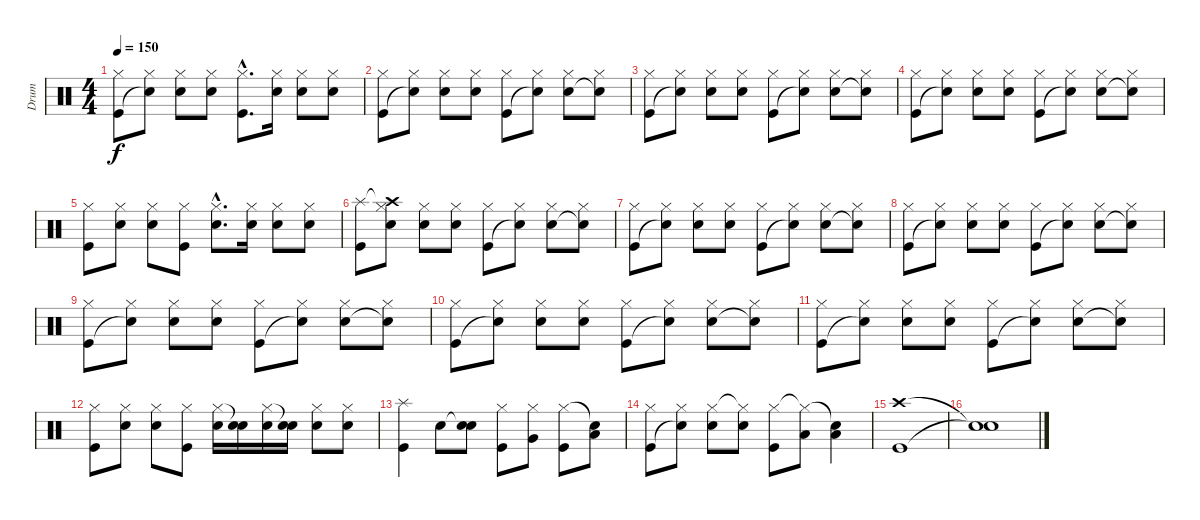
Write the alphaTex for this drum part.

\track ("Drum" "Drum") {instrument percussion}
\staff {score}
\articulation defaults
\ts (4 4)
\tempo 150
\clef neutral
\ks c
("Hi-Hat (closed)" "Kick (hit)").8{dy f} ("Hi-Hat (closed)" "Snare (hit)"{t}).8 ("Hi-Hat (closed)" "Snare (hit) 2").8 ("Hi-Hat (closed)" "Snare (hit) 2").8 ("Hi-Hat (closed)"{hac} "Kick (hit)"{hac}).8{d} ("Hi-Hat (closed)" "Snare (hit) 2").16 ("Hi-Hat (closed)" "Snare (hit) 2").8 ("Hi-Hat (closed)" "Snare (hit) 2").8 |
("Hi-Hat (closed)" "Kick (hit)").8 ("Hi-Hat (closed)" "Snare (hit)"{t}).8 ("Hi-Hat (closed)" "Snare (hit) 2").8 ("Hi-Hat (closed)" "Snare (hit) 2").8 ("Hi-Hat (closed)" "Kick (hit)").8 ("Hi-Hat (closed)" "Snare (hit)"{t}).8 ("Hi-Hat (closed)" "Snare (hit) 2").8 ("Hi-Hat (closed)" "Snare (hit)"{t}).8 |
("Hi-Hat (closed)" "Kick (hit)").8 ("Hi-Hat (closed)" "Snare (hit)"{t}).8 ("Hi-Hat (closed)" "Snare (hit) 2").8 ("Hi-Hat (closed)" "Snare (hit) 2").8 ("Hi-Hat (closed)" "Kick (hit)").8 ("Hi-Hat (closed)" "Snare (hit)"{t}).8 ("Hi-Hat (closed)" "Snare (hit) 2").8 ("Hi-Hat (closed)" "Snare (hit)"{t}).8 |
("Hi-Hat (closed)" "Kick (hit)").8 ("Hi-Hat (closed)" "Snare (hit)"{t}).8 ("Hi-Hat (closed)" "Snare (hit) 2").8 ("Hi-Hat (closed)" "Snare (hit) 2").8 ("Hi-Hat (closed)" "Kick (hit)").8 ("Hi-Hat (closed)" "Snare (hit)"{t}).8 ("Hi-Hat (closed)" "Snare (hit) 2").8 ("Hi-Hat (closed)" "Snare (hit)"{t}).8 |
("Hi-Hat (closed)" "Kick (hit)").8 ("Hi-Hat (closed)" "Snare (hit) 2").8 ("Hi-Hat (closed)" "Snare (hit) 2").8 ("Hi-Hat (closed)" "Kick (hit)").8 ("Hi-Hat (closed)"{hac} "Snare (hit) 2"{hac}).8{d} ("Hi-Hat (closed)" "Snare (hit) 2").16 ("Hi-Hat (closed)" "Snare (hit) 2").8 ("Hi-Hat (closed)" "Snare (hit) 2").8 |
("Splash (hit)" "Kick (hit)").8 ("Crash high (hit)"{t} "Hi-Hat (closed)" "Snare (hit)").8 ("Hi-Hat (closed)" "Snare (hit) 2").8 ("Hi-Hat (closed)" "Snare (hit) 2").8 ("Hi-Hat (closed)" "Kick (hit)").8 ("Hi-Hat (closed)" "Snare (hit)"{t}).8 ("Hi-Hat (closed)" "Snare (hit) 2").8 ("Hi-Hat (closed)" "Snare (hit)"{t}).8 |
("Hi-Hat (closed)" "Kick (hit)").8 ("Hi-Hat (closed)" "Snare (hit)"{t}).8 ("Hi-Hat (closed)" "Snare (hit) 2").8 ("Hi-Hat (closed)" "Snare (hit) 2").8 ("Hi-Hat (closed)" "Kick (hit)").8 ("Hi-Hat (closed)" "Snare (hit)"{t}).8 ("Hi-Hat (closed)" "Snare (hit) 2").8 ("Hi-Hat (closed)" "Snare (hit)"{t}).8 |
("Hi-Hat (closed)" "Kick (hit)").8 ("Hi-Hat (closed)" "Snare (hit)"{t}).8 ("Hi-Hat (closed)" "Snare (hit) 2").8 ("Hi-Hat (closed)" "Snare (hit) 2").8 ("Hi-Hat (closed)" "Kick (hit)").8 ("Hi-Hat (closed)" "Snare (hit)"{t}).8 ("Hi-Hat (closed)" "Snare (hit) 2").8 ("Hi-Hat (closed)" "Snare (hit)"{t}).8 |
("Hi-Hat (closed)" "Kick (hit)").8 ("Hi-Hat (closed)" "Snare (hit)"{t}).8 ("Hi-Hat (closed)" "Snare (hit) 2").8 ("Hi-Hat (closed)" "Snare (hit) 2").8 ("Hi-Hat (closed)" "Kick (hit)").8 ("Hi-Hat (closed)" "Snare (hit)"{t}).8 ("Hi-Hat (closed)" "Snare (hit) 2").8 ("Hi-Hat (closed)" "Snare (hit)"{t}).8 |
("Hi-Hat (closed)" "Kick (hit)").8 ("Hi-Hat (closed)" "Snare (hit)"{t}).8 ("Hi-Hat (closed)" "Snare (hit) 2").8 ("Hi-Hat (closed)" "Snare (hit) 2").8 ("Hi-Hat (closed)" "Kick (hit)").8 ("Hi-Hat (closed)" "Snare (hit)"{t}).8 ("Hi-Hat (closed)" "Snare (hit) 2").8 ("Hi-Hat (closed)" "Snare (hit)"{t}).8 |
("Hi-Hat (closed)" "Kick (hit)").8 ("Hi-Hat (closed)" "Snare (hit)"{t}).8 ("Hi-Hat (closed)" "Snare (hit) 2").8 ("Hi-Hat (closed)" "Snare (hit) 2").8 ("Hi-Hat (closed)" "Kick (hit)").8 ("Hi-Hat (closed)" "Snare (hit)"{t}).8 ("Hi-Hat (closed)" "Snare (hit) 2").8 ("Hi-Hat (closed)" "Snare (hit)"{t}).8 |
("Hi-Hat (closed)" "Kick (hit)").8 ("Hi-Hat (closed)" "Snare (hit) 2").8 ("Hi-Hat (closed)" "Snare (hit) 2").8 ("Hi-Hat (closed)" "Kick (hit)").8 ("Hi-Hat (closed)" "Snare (hit) 2").16 ("Snare (hit)"{t} "Snare (hit) 2").16 ("Hi-Hat (closed)" "Snare (hit) 2").16 ("Snare (hit)"{t} "Snare (hit) 2").16 ("Hi-Hat (closed)" "Snare (hit) 2").8 ("Hi-Hat (closed)" "Snare (hit) 2").8 |
("Splash (hit)" "Kick (hit)").4 "Snare (hit) 2".8 ("Snare (hit)"{t} "Snare (hit) 2").8 ("Hi-Hat (closed)" "Kick (hit)").8 ("Hi-Hat (closed)" "Very Low Tom (hit)").8 ("Hi-Hat (closed)" "Kick (hit)").8 ("Snare (hit)"{t} "Low Floor Tom (hit)").8 |
("Hi-Hat (closed)" "Kick (hit)").8 ("Hi-Hat (closed)" "Snare (hit)"{t}).8 ("Hi-Hat (closed)" "Snare (hit) 2").8 ("Hi-Hat (closed)"{t} "Snare (hit) 2").8 ("Hi-Hat (closed)" "Kick (hit)").8 ("Hi-Hat (closed)"{t} "Low Floor Tom (hit)").8 ("Snare (hit)"{t} "Low Floor Tom (hit)").4 |
("Crash high (hit)" "Kick (hit)").1 |
("Snare (hit)"{t} "Snare (hit)"{t}).1
